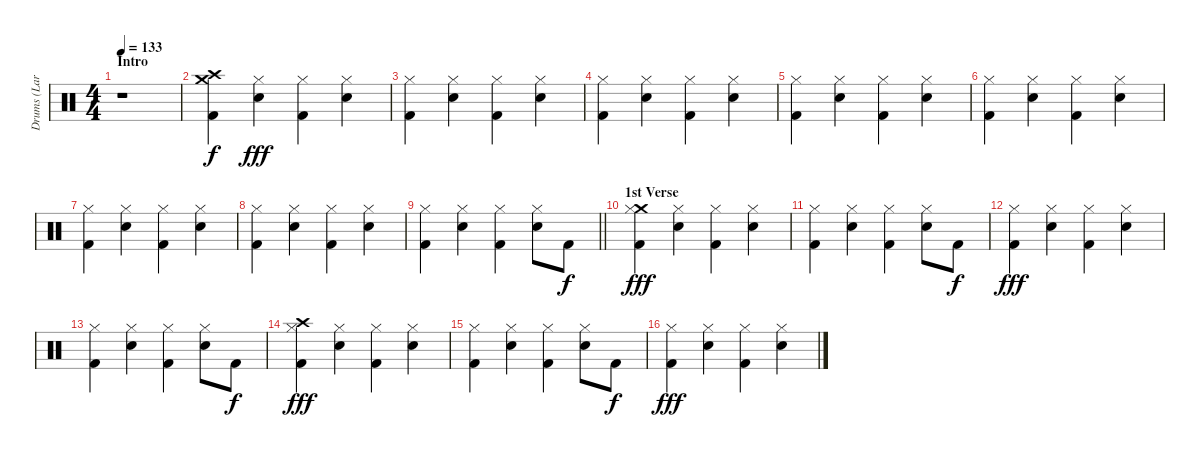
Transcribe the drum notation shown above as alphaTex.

\track ("Drums (Lars)" "Drums (Lar") {instrument percussion}
\staff {score}
\articulation defaults
\ts (4 4)
\section ("" "Intro")
\tempo 133
\clef neutral
\ks c
r.1{dy f} |
("Crash high (hit)" "Crash medium (hit)" "Kick (hit) 2").4 ("Hi-Hat (closed)" "Snare (hit) 2").4{dy fff} ("Hi-Hat (closed)" "Kick (hit) 2").4 ("Hi-Hat (closed)" "Snare (hit) 2").4 |
("Hi-Hat (closed)" "Kick (hit) 2").4 ("Hi-Hat (closed)" "Snare (hit) 2").4 ("Hi-Hat (closed)" "Kick (hit) 2").4 ("Hi-Hat (closed)" "Snare (hit) 2").4 |
("Hi-Hat (closed)" "Kick (hit) 2").4 ("Hi-Hat (closed)" "Snare (hit) 2").4 ("Hi-Hat (closed)" "Kick (hit) 2").4 ("Hi-Hat (closed)" "Snare (hit) 2").4 |
("Hi-Hat (closed)" "Kick (hit) 2").4 ("Hi-Hat (closed)" "Snare (hit) 2").4 ("Hi-Hat (closed)" "Kick (hit) 2").4 ("Hi-Hat (closed)" "Snare (hit) 2").4 |
("Hi-Hat (closed)" "Kick (hit) 2").4 ("Hi-Hat (closed)" "Snare (hit) 2").4 ("Hi-Hat (closed)" "Kick (hit) 2").4 ("Hi-Hat (closed)" "Snare (hit) 2").4 |
("Hi-Hat (closed)" "Kick (hit) 2").4 ("Hi-Hat (closed)" "Snare (hit) 2").4 ("Hi-Hat (closed)" "Kick (hit) 2").4 ("Hi-Hat (closed)" "Snare (hit) 2").4 |
("Hi-Hat (closed)" "Kick (hit) 2").4 ("Hi-Hat (closed)" "Snare (hit) 2").4 ("Hi-Hat (closed)" "Kick (hit) 2").4 ("Hi-Hat (closed)" "Snare (hit) 2").4 |
\barLineRight lightlight
("Hi-Hat (closed)" "Kick (hit) 2").4 ("Hi-Hat (closed)" "Snare (hit) 2").4 ("Hi-Hat (closed)" "Kick (hit) 2").4 ("Hi-Hat (closed)" "Snare (hit) 2").8 "Kick (hit) 2".8{dy f} |
\section ("" "1st Verse")
("Crash medium (hit)" "Hi-Hat (closed)" "Kick (hit) 2").4{dy fff} ("Hi-Hat (closed)" "Snare (hit) 2").4 ("Hi-Hat (closed)" "Kick (hit) 2").4 ("Hi-Hat (closed)" "Snare (hit) 2").4 |
("Hi-Hat (closed)" "Kick (hit) 2").4 ("Hi-Hat (closed)" "Snare (hit) 2").4 ("Hi-Hat (closed)" "Kick (hit) 2").4 ("Hi-Hat (closed)" "Snare (hit) 2").8 "Kick (hit) 2".8{dy f} |
("Hi-Hat (closed)" "Kick (hit) 2").4{dy fff} ("Hi-Hat (closed)" "Snare (hit) 2").4 ("Hi-Hat (closed)" "Kick (hit) 2").4 ("Hi-Hat (closed)" "Snare (hit) 2").4 |
("Hi-Hat (closed)" "Kick (hit) 2").4 ("Hi-Hat (closed)" "Snare (hit) 2").4 ("Hi-Hat (closed)" "Kick (hit) 2").4 ("Hi-Hat (closed)" "Snare (hit) 2").8 "Kick (hit) 2".8{dy f} |
("Crash high (hit)" "Hi-Hat (closed)" "Kick (hit) 2").4{dy fff} ("Hi-Hat (closed)" "Snare (hit) 2").4 ("Hi-Hat (closed)" "Kick (hit) 2").4 ("Hi-Hat (closed)" "Snare (hit) 2").4 |
("Hi-Hat (closed)" "Kick (hit) 2").4 ("Hi-Hat (closed)" "Snare (hit) 2").4 ("Hi-Hat (closed)" "Kick (hit) 2").4 ("Hi-Hat (closed)" "Snare (hit) 2").8 "Kick (hit) 2".8{dy f} |
("Hi-Hat (closed)" "Kick (hit) 2").4{dy fff} ("Hi-Hat (closed)" "Snare (hit) 2").4 ("Hi-Hat (closed)" "Kick (hit) 2").4 ("Hi-Hat (closed)" "Snare (hit) 2").4
